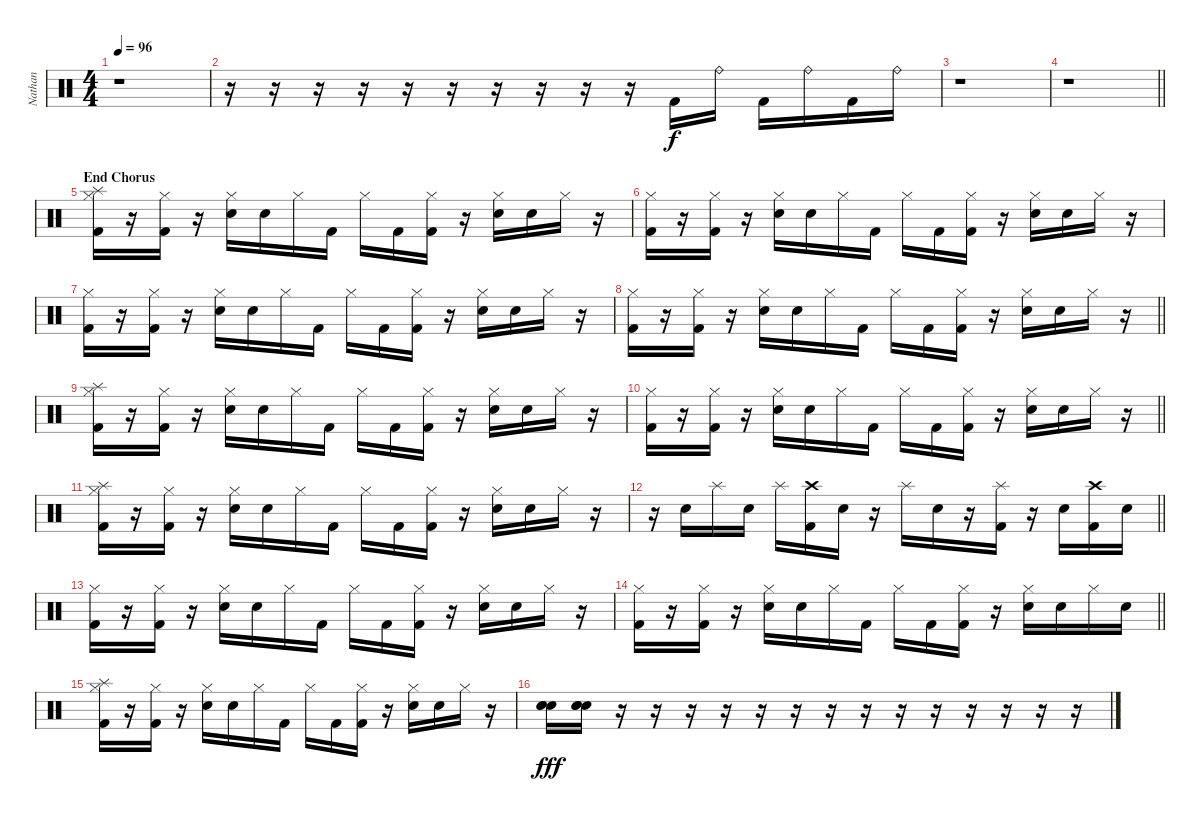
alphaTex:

\track ("Nathan" "Nathan") {instrument percussion}
\staff {score}
\articulation defaults
\ts (4 4)
\tempo 96
\clef neutral
\ks c
r.1{dy f} |
r.16 r.16 r.16 r.16 r.16 r.16 r.16 r.16 r.16 r.16 "Kick (hit) 2".16 "Ride (bell)".16 "Kick (hit) 2".16 "Ride (bell)".16 "Kick (hit) 2".16 "Ride (bell)".16 |
r.1 |
\barLineRight lightlight
r.1 |
\section ("" "End Chorus")
("Splash (hit)" "Hi-Hat (closed)" "Kick (hit) 2").16 r.16 ("Hi-Hat (closed)" "Kick (hit) 2").16 r.16 ("Hi-Hat (closed)" "Electric Snare (hit)").16 "Electric Snare (hit)".16 "Hi-Hat (closed)".16 "Kick (hit) 2".16 "Hi-Hat (closed)".16 "Kick (hit) 2".16 ("Hi-Hat (closed)" "Kick (hit) 2").16 r.16 ("Hi-Hat (closed)" "Electric Snare (hit)").16 "Electric Snare (hit)".16 "Hi-Hat (closed)".16 r.16 |
("Hi-Hat (closed)" "Kick (hit) 2").16 r.16 ("Hi-Hat (closed)" "Kick (hit) 2").16 r.16 ("Hi-Hat (closed)" "Electric Snare (hit)").16 "Electric Snare (hit)".16 "Hi-Hat (closed)".16 "Kick (hit) 2".16 "Hi-Hat (closed)".16 "Kick (hit) 2".16 ("Hi-Hat (closed)" "Kick (hit) 2").16 r.16 ("Hi-Hat (closed)" "Electric Snare (hit)").16 "Electric Snare (hit)".16 "Hi-Hat (closed)".16 r.16 |
("Hi-Hat (closed)" "Kick (hit) 2").16 r.16 ("Hi-Hat (closed)" "Kick (hit) 2").16 r.16 ("Hi-Hat (closed)" "Electric Snare (hit)").16 "Electric Snare (hit)".16 "Hi-Hat (closed)".16 "Kick (hit) 2".16 "Hi-Hat (closed)".16 "Kick (hit) 2".16 ("Hi-Hat (closed)" "Kick (hit) 2").16 r.16 ("Hi-Hat (closed)" "Electric Snare (hit)").16 "Electric Snare (hit)".16 "Hi-Hat (closed)".16 r.16 |
\barLineRight lightlight
("Hi-Hat (closed)" "Kick (hit) 2").16 r.16 ("Hi-Hat (closed)" "Kick (hit) 2").16 r.16 ("Hi-Hat (closed)" "Electric Snare (hit)").16 "Electric Snare (hit)".16 "Hi-Hat (closed)".16 "Kick (hit) 2".16 "Hi-Hat (closed)".16 "Kick (hit) 2".16 ("Hi-Hat (closed)" "Kick (hit) 2").16 r.16 ("Hi-Hat (closed)" "Electric Snare (hit)").16 "Electric Snare (hit)".16 "Hi-Hat (closed)".16 r.16 |
("Splash (hit)" "Hi-Hat (closed)" "Kick (hit) 2").16 r.16 ("Hi-Hat (closed)" "Kick (hit) 2").16 r.16 ("Hi-Hat (closed)" "Electric Snare (hit)").16 "Electric Snare (hit)".16 "Hi-Hat (closed)".16 "Kick (hit) 2".16 "Hi-Hat (closed)".16 "Kick (hit) 2".16 ("Hi-Hat (closed)" "Kick (hit) 2").16 r.16 ("Hi-Hat (closed)" "Electric Snare (hit)").16 "Electric Snare (hit)".16 "Hi-Hat (closed)".16 r.16 |
\barLineRight lightlight
("Hi-Hat (closed)" "Kick (hit) 2").16 r.16 ("Hi-Hat (closed)" "Kick (hit) 2").16 r.16 ("Hi-Hat (closed)" "Electric Snare (hit)").16 "Electric Snare (hit)".16 "Hi-Hat (closed)".16 "Kick (hit) 2".16 "Hi-Hat (closed)".16 "Kick (hit) 2".16 ("Hi-Hat (closed)" "Kick (hit) 2").16 r.16 ("Hi-Hat (closed)" "Electric Snare (hit)").16 "Electric Snare (hit)".16 "Hi-Hat (closed)".16 r.16 |
("Splash (hit)" "Hi-Hat (closed)" "Kick (hit) 2").16 r.16 ("Hi-Hat (closed)" "Kick (hit) 2").16 r.16 ("Hi-Hat (closed)" "Electric Snare (hit)").16 "Electric Snare (hit)".16 "Hi-Hat (closed)".16 "Kick (hit) 2".16 "Hi-Hat (closed)".16 "Kick (hit) 2".16 ("Hi-Hat (closed)" "Kick (hit) 2").16 r.16 ("Hi-Hat (closed)" "Electric Snare (hit)").16 "Electric Snare (hit)".16 "Hi-Hat (closed)".16 r.16 |
\barLineRight lightlight
r.16 "Electric Snare (hit)".16 "Splash (hit)".16 "Electric Snare (hit)".16 "Splash (hit)".16 ("Crash high (hit)" "Kick (hit) 2").16 "Electric Snare (hit)".16 r.16 "Splash (hit)".16 "Electric Snare (hit)".16 r.16 ("Splash (hit)" "Kick (hit) 2").16 r.16 "Electric Snare (hit)".16 ("Crash high (hit)" "Kick (hit) 2").16 "Electric Snare (hit)".16 |
("Hi-Hat (closed)" "Kick (hit) 2").16 r.16 ("Hi-Hat (closed)" "Kick (hit) 2").16 r.16 ("Hi-Hat (closed)" "Electric Snare (hit)").16 "Electric Snare (hit)".16 "Hi-Hat (closed)".16 "Kick (hit) 2".16 "Hi-Hat (closed)".16 "Kick (hit) 2".16 ("Hi-Hat (closed)" "Kick (hit) 2").16 r.16 ("Hi-Hat (closed)" "Electric Snare (hit)").16 "Electric Snare (hit)".16 "Hi-Hat (closed)".16 r.16 |
\barLineRight lightlight
("Hi-Hat (closed)" "Kick (hit) 2").16 r.16 ("Hi-Hat (closed)" "Kick (hit) 2").16 r.16 ("Hi-Hat (closed)" "Electric Snare (hit)").16 "Electric Snare (hit)".16 "Hi-Hat (closed)".16 "Kick (hit) 2".16 "Hi-Hat (closed)".16 "Kick (hit) 2".16 ("Hi-Hat (closed)" "Kick (hit) 2").16 r.16 ("Hi-Hat (closed)" "Electric Snare (hit)").16 "Electric Snare (hit)".16 "Hi-Hat (closed)".16 "Electric Snare (hit)".16 |
("Splash (hit)" "Hi-Hat (closed)" "Kick (hit) 2").16 r.16 ("Hi-Hat (closed)" "Kick (hit) 2").16 r.16 ("Hi-Hat (closed)" "Electric Snare (hit)").16 "Electric Snare (hit)".16 "Hi-Hat (closed)".16 "Kick (hit) 2".16 "Hi-Hat (closed)".16 "Kick (hit) 2".16 ("Hi-Hat (closed)" "Kick (hit) 2").16 r.16 ("Hi-Hat (closed)" "Electric Snare (hit)").16 "Electric Snare (hit)".16 "Hi-Hat (closed)".16 r.16 |
("Electric Snare (hit)" "Snare (hit) 2" "Electric Snare (hit)").16{dy fff} ("Electric Snare (hit)" "Snare (hit) 2" "Electric Snare (hit)").16 r.16 r.16 r.16 r.16 r.16 r.16 r.16 r.16 r.16 r.16 r.16 r.16 r.16 r.16
